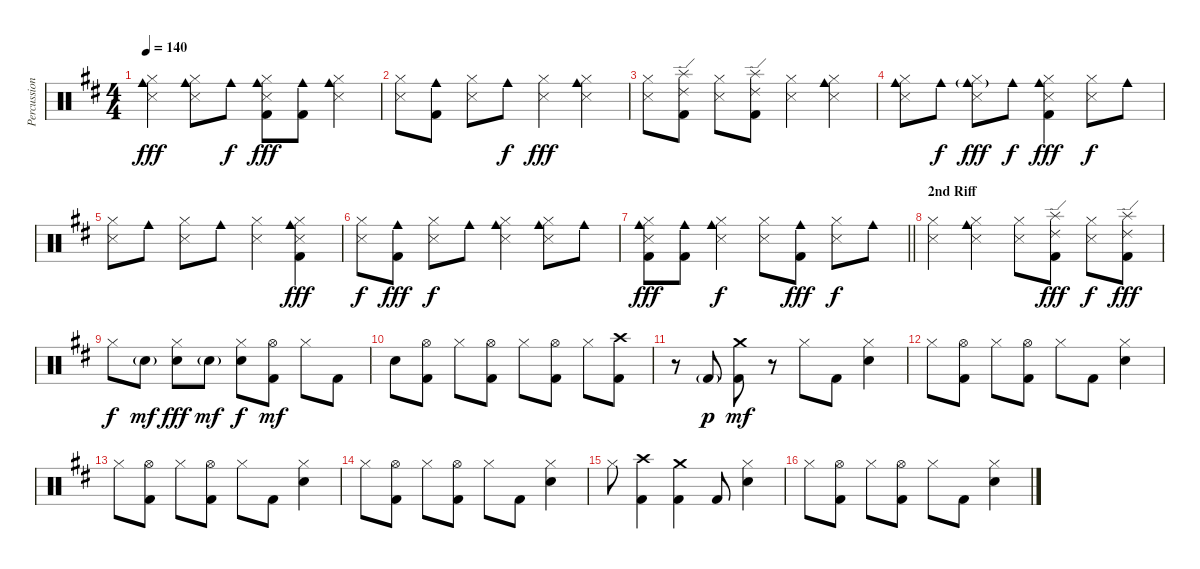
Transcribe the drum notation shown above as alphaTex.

\track ("Percussions" "Percussion") {instrument percussion}
\staff {score}
\articulation defaults
\ts (4 4)
\tempo 140
\clef neutral
\ks d
("Cowbell medium (hit)" "Snare (side stick) 3" "Hi-Hat (closed)").4{dy fff} ("Cowbell medium (hit)" "Snare (side stick) 3" "Hi-Hat (closed)").8 "Cowbell medium (hit)".8{dy f} ("Cowbell medium (hit)" "Snare (side stick) 3" "Kick (hit) 2" "Hi-Hat (closed)").8{dy fff} ("Cowbell medium (hit)" "Kick (hit) 2").8 ("Cowbell medium (hit)" "Snare (side stick) 3" "Hi-Hat (closed)").4 |
("Snare (side stick) 3" "Hi-Hat (closed)").8 ("Cowbell medium (hit)" "Kick (hit) 2").8 ("Snare (side stick) 3" "Hi-Hat (closed)").8 "Cowbell medium (hit)".8{dy f} ("Snare (side stick) 3" "Hi-Hat (closed)").4{dy fff} ("Cowbell medium (hit)" "Snare (side stick) 3" "Hi-Hat (closed)").4 |
("Snare (side stick) 3" "Hi-Hat (closed)").8 ("Ride (edge) 2" "Splash (hit)" "Kick (hit) 2").8 ("Snare (side stick) 3" "Hi-Hat (closed)").8 ("Ride (edge) 2" "Splash (hit)" "Kick (hit) 2").8 ("Snare (side stick) 3" "Hi-Hat (closed)").4 ("Cowbell medium (hit)" "Snare (side stick) 3" "Hi-Hat (closed)").4 |
("Cowbell medium (hit)" "Snare (side stick) 3" "Hi-Hat (closed)").8 "Cowbell medium (hit)".8{dy f} ("Cowbell medium (hit)"{g} "Snare (side stick) 3" "Hi-Hat (closed)").8{dy fff} "Cowbell medium (hit)".8{dy f} ("Cowbell medium (hit)" "Snare (side stick) 3" "Kick (hit) 2" "Hi-Hat (closed)").4{dy fff} ("Snare (side stick) 3" "Hi-Hat (closed)").8{dy f} "Cowbell medium (hit)".8 |
("Snare (side stick) 3" "Hi-Hat (closed)").8 "Cowbell medium (hit)".8 ("Snare (side stick) 3" "Hi-Hat (closed)").8 "Cowbell medium (hit)".8 ("Snare (side stick) 3" "Hi-Hat (closed)").4 ("Cowbell medium (hit)" "Snare (side stick) 3" "Kick (hit) 2" "Hi-Hat (closed)").4{dy fff} |
("Snare (side stick) 3" "Hi-Hat (closed)").8{dy f} ("Cowbell medium (hit)" "Kick (hit) 2").8{dy fff} ("Snare (side stick) 3" "Hi-Hat (closed)").8{dy f} "Cowbell medium (hit)".8 ("Cowbell medium (hit)" "Snare (side stick) 3" "Hi-Hat (closed)").4 ("Cowbell medium (hit)" "Snare (side stick) 3" "Hi-Hat (closed)").8 "Cowbell medium (hit)".8 |
\barLineRight lightlight
("Cowbell medium (hit)" "Snare (side stick) 3" "Kick (hit) 2" "Hi-Hat (closed)").8{dy fff} ("Cowbell medium (hit)" "Kick (hit) 2").8 ("Cowbell medium (hit)" "Snare (side stick) 3" "Hi-Hat (closed)").4{dy f} ("Snare (side stick) 3" "Hi-Hat (closed)").8 ("Cowbell medium (hit)" "Kick (hit) 2").8{dy fff} ("Snare (side stick) 3" "Hi-Hat (closed)").8{dy f} "Cowbell medium (hit)".8 |
\section ("" "2nd Riff")
("Snare (side stick) 3" "Hi-Hat (closed)").4 ("Cowbell medium (hit)" "Snare (side stick) 3" "Hi-Hat (closed)").4 ("Snare (side stick) 3" "Hi-Hat (closed)").8 ("Ride (edge) 2" "Splash (hit)" "Kick (hit) 2").8{dy fff} ("Snare (side stick) 3" "Hi-Hat (closed)").8{dy f} ("Ride (edge) 2" "Splash (hit)" "Kick (hit) 2").8{dy fff} |
"Hi-Hat (closed)".8{dy f} "Electric Snare (hit)"{g}.8{dy mf} ("Electric Snare (hit)" "Hi-Hat (closed)").8{dy fff} "Electric Snare (hit)"{g}.8{dy mf} ("Electric Snare (hit)" "Hi-Hat (closed)").8{dy f} ("Kick (hit) 2" "Hi-Hat (open)").8{dy mf} "Hi-Hat (closed)".8 "Kick (hit) 2".8 |
"Electric Snare (hit)".8 ("Kick (hit) 2" "Hi-Hat (open)").8 "Hi-Hat (closed)".8 ("Kick (hit) 2" "Hi-Hat (open)").8 "Hi-Hat (closed)".8 ("Kick (hit) 2" "Hi-Hat (open)").8 "Hi-Hat (closed)".8 ("Crash high (hit)" "Kick (hit) 2").8 |
r.8 "Kick (hit) 2"{g}.8{dy p} ("Crash medium (hit)" "Kick (hit) 2").8{dy mf} r.8 "Hi-Hat (closed)".8 "Kick (hit) 2".8 ("Electric Snare (hit)" "Hi-Hat (closed)").4 |
"Hi-Hat (closed)".8 ("Kick (hit) 2" "Hi-Hat (open)").8 "Hi-Hat (closed)".8 ("Kick (hit) 2" "Hi-Hat (open)").8 "Hi-Hat (closed)".8 "Kick (hit) 2".8 ("Electric Snare (hit)" "Hi-Hat (closed)").4 |
"Hi-Hat (closed)".8 ("Kick (hit) 2" "Hi-Hat (open)").8 "Hi-Hat (closed)".8 ("Kick (hit) 2" "Hi-Hat (open)").8 "Hi-Hat (closed)".8 "Kick (hit) 2".8 ("Electric Snare (hit)" "Hi-Hat (closed)").4 |
"Hi-Hat (closed)".8 ("Kick (hit) 2" "Hi-Hat (open)").8 "Hi-Hat (closed)".8 ("Kick (hit) 2" "Hi-Hat (open)").8 "Hi-Hat (closed)".8 "Kick (hit) 2".8 ("Electric Snare (hit)" "Hi-Hat (closed)").4 |
"Hi-Hat (closed)".8 ("Crash high (hit)" "Kick (hit) 2").4 ("Crash medium (hit)" "Kick (hit) 2").4 "Kick (hit) 2".8 ("Electric Snare (hit)" "Hi-Hat (closed)").4 |
"Hi-Hat (closed)".8 ("Kick (hit) 2" "Hi-Hat (open)").8 "Hi-Hat (closed)".8 ("Kick (hit) 2" "Hi-Hat (open)").8 "Hi-Hat (closed)".8 "Kick (hit) 2".8 ("Electric Snare (hit)" "Hi-Hat (closed)").4
